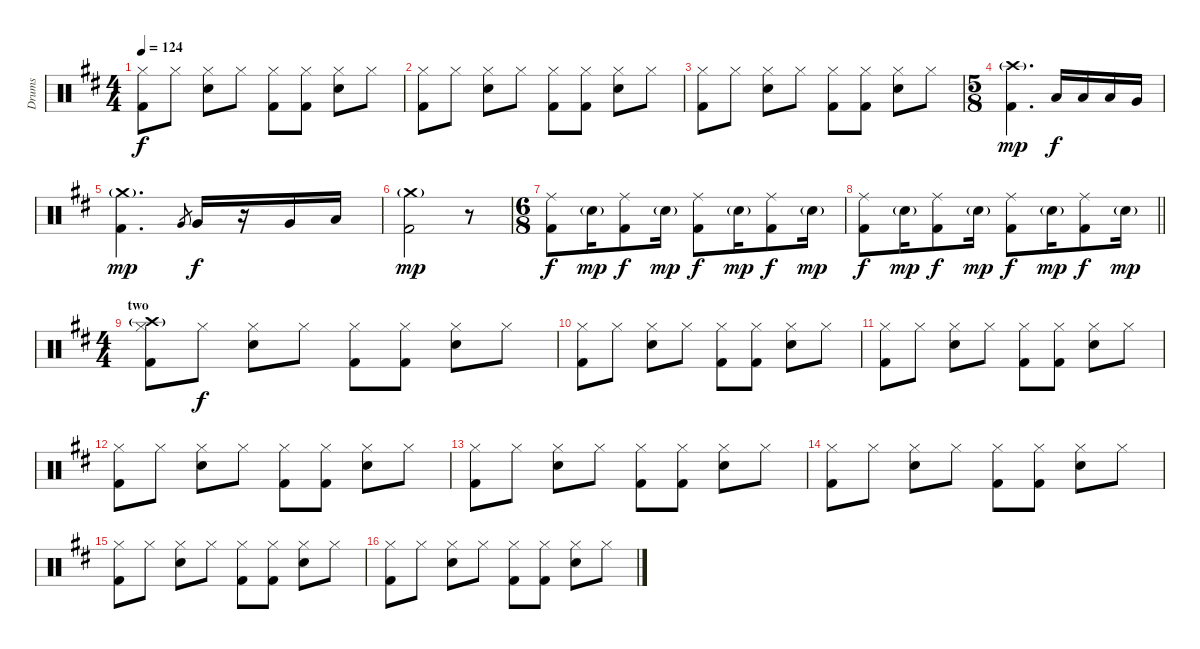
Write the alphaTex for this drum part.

\track ("Drums" "Drums") {instrument percussion}
\staff {score}
\articulation defaults
\ts (4 4)
\tempo 124
\clef neutral
\ks d
("Hi-Hat (closed)" "Kick (hit) 2").8{dy f} "Hi-Hat (closed)".8 ("Hi-Hat (closed)" "Electric Snare (hit)").8 "Hi-Hat (closed)".8 ("Hi-Hat (closed)" "Kick (hit) 2").8 ("Hi-Hat (closed)" "Kick (hit) 2").8 ("Hi-Hat (closed)" "Electric Snare (hit)").8 "Hi-Hat (closed)".8 |
("Hi-Hat (closed)" "Kick (hit) 2").8 "Hi-Hat (closed)".8 ("Hi-Hat (closed)" "Electric Snare (hit)").8 "Hi-Hat (closed)".8 ("Hi-Hat (closed)" "Kick (hit) 2").8 ("Hi-Hat (closed)" "Kick (hit) 2").8 ("Hi-Hat (closed)" "Electric Snare (hit)").8 "Hi-Hat (closed)".8 |
("Hi-Hat (closed)" "Kick (hit) 2").8 "Hi-Hat (closed)".8 ("Hi-Hat (closed)" "Electric Snare (hit)").8 "Hi-Hat (closed)".8 ("Hi-Hat (closed)" "Kick (hit) 2").8 ("Hi-Hat (closed)" "Kick (hit) 2").8 ("Hi-Hat (closed)" "Electric Snare (hit)").8 "Hi-Hat (closed)".8 |
\ts (5 8)
("Crash high (hit)"{g} "Kick (hit) 2").4{d dy mp} "Low Tom (hit)".16{dy f} "Low Tom (hit)".16 "Low Tom (hit)".16 "Very Low Tom (hit)".16 |
("Crash medium (hit)"{g} "Kick (hit) 2").4{d dy mp} "Very Low Tom (hit)".8{gr} "Very Low Tom (hit)".16{dy f} r.16 "Very Low Tom (hit)".16 "Low Tom (hit)".16 |
("Crash medium (hit)"{g} "Kick (hit) 2").2{dy mp} r.8 |
\ts (6 8)
("Ride (middle)" "Kick (hit) 2").8{dy f} "Electric Snare (hit)"{g}.16{dy mp} ("Ride (middle)" "Kick (hit) 2").8{dy f} "Electric Snare (hit)"{g}.16{dy mp} ("Ride (middle)" "Kick (hit) 2").8{dy f} "Electric Snare (hit)"{g}.16{dy mp} ("Ride (middle)" "Kick (hit) 2").8{dy f} "Electric Snare (hit)"{g}.16{dy mp} |
\barLineRight lightlight
("Ride (middle)" "Kick (hit) 2").8{dy f} "Electric Snare (hit)"{g}.16{dy mp} ("Ride (middle)" "Kick (hit) 2").8{dy f} "Electric Snare (hit)"{g}.16{dy mp} ("Ride (middle)" "Kick (hit) 2").8{dy f} "Electric Snare (hit)"{g}.16{dy mp} ("Ride (middle)" "Kick (hit) 2").8{dy f} "Electric Snare (hit)"{g}.16{dy mp} |
\ts (4 4)
\section ("" "two")
("Crash high (hit)"{g} "Hi-Hat (closed)" "Kick (hit) 2").8 "Hi-Hat (closed)".8{dy f} ("Hi-Hat (closed)" "Electric Snare (hit)").8 "Hi-Hat (closed)".8 ("Hi-Hat (closed)" "Kick (hit) 2").8 ("Hi-Hat (closed)" "Kick (hit) 2").8 ("Hi-Hat (closed)" "Electric Snare (hit)").8 "Hi-Hat (closed)".8 |
("Hi-Hat (closed)" "Kick (hit) 2").8 "Hi-Hat (closed)".8 ("Hi-Hat (closed)" "Electric Snare (hit)").8 "Hi-Hat (closed)".8 ("Hi-Hat (closed)" "Kick (hit) 2").8 ("Hi-Hat (closed)" "Kick (hit) 2").8 ("Hi-Hat (closed)" "Electric Snare (hit)").8 "Hi-Hat (closed)".8 |
("Hi-Hat (closed)" "Kick (hit) 2").8 "Hi-Hat (closed)".8 ("Hi-Hat (closed)" "Electric Snare (hit)").8 "Hi-Hat (closed)".8 ("Hi-Hat (closed)" "Kick (hit) 2").8 ("Hi-Hat (closed)" "Kick (hit) 2").8 ("Hi-Hat (closed)" "Electric Snare (hit)").8 "Hi-Hat (closed)".8 |
("Hi-Hat (closed)" "Kick (hit) 2").8 "Hi-Hat (closed)".8 ("Hi-Hat (closed)" "Electric Snare (hit)").8 "Hi-Hat (closed)".8 ("Hi-Hat (closed)" "Kick (hit) 2").8 ("Hi-Hat (closed)" "Kick (hit) 2").8 ("Hi-Hat (closed)" "Electric Snare (hit)").8 "Hi-Hat (closed)".8 |
("Hi-Hat (closed)" "Kick (hit) 2").8 "Hi-Hat (closed)".8 ("Hi-Hat (closed)" "Electric Snare (hit)").8 "Hi-Hat (closed)".8 ("Hi-Hat (closed)" "Kick (hit) 2").8 ("Hi-Hat (closed)" "Kick (hit) 2").8 ("Hi-Hat (closed)" "Electric Snare (hit)").8 "Hi-Hat (closed)".8 |
("Hi-Hat (closed)" "Kick (hit) 2").8 "Hi-Hat (closed)".8 ("Hi-Hat (closed)" "Electric Snare (hit)").8 "Hi-Hat (closed)".8 ("Hi-Hat (closed)" "Kick (hit) 2").8 ("Hi-Hat (closed)" "Kick (hit) 2").8 ("Hi-Hat (closed)" "Electric Snare (hit)").8 "Hi-Hat (closed)".8 |
("Hi-Hat (closed)" "Kick (hit) 2").8 "Hi-Hat (closed)".8 ("Hi-Hat (closed)" "Electric Snare (hit)").8 "Hi-Hat (closed)".8 ("Hi-Hat (closed)" "Kick (hit) 2").8 ("Hi-Hat (closed)" "Kick (hit) 2").8 ("Hi-Hat (closed)" "Electric Snare (hit)").8 "Hi-Hat (closed)".8 |
("Hi-Hat (closed)" "Kick (hit) 2").8 "Hi-Hat (closed)".8 ("Hi-Hat (closed)" "Electric Snare (hit)").8 "Hi-Hat (closed)".8 ("Hi-Hat (closed)" "Kick (hit) 2").8 ("Hi-Hat (closed)" "Kick (hit) 2").8 ("Hi-Hat (closed)" "Electric Snare (hit)").8 "Hi-Hat (closed)".8
